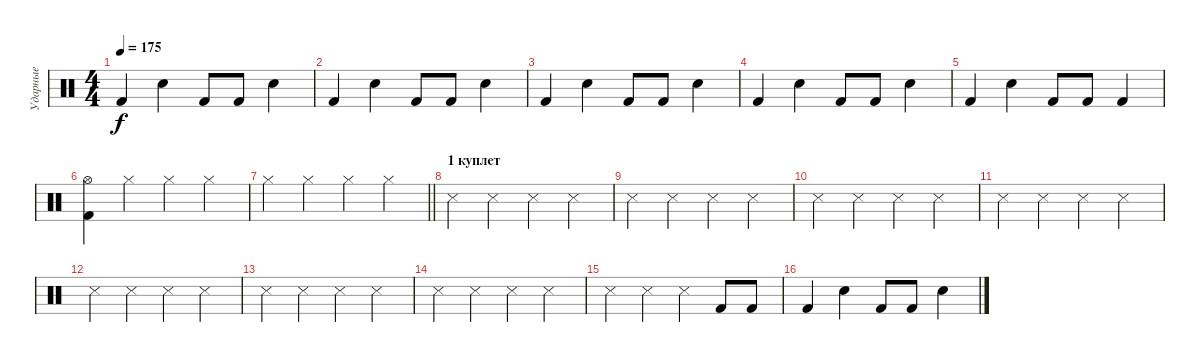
\track ("Ударные" "Ударные") {instrument percussion}
\staff {score}
\articulation defaults
\ts (4 4)
\tempo 175
\clef neutral
\ks c "Kick (hit) 2".4{dy f} "Electric Snare (hit)".4 "Kick (hit) 2".8 "Kick (hit) 2".8 "Electric Snare (hit)".4
|
"Kick (hit) 2".4 "Electric Snare (hit)".4 "Kick (hit) 2".8 "Kick (hit) 2".8 "Electric Snare (hit)".4 |
"Kick (hit) 2".4 "Electric Snare (hit)".4 "Kick (hit) 2".8 "Kick (hit) 2".8 "Electric Snare (hit)".4 |
"Kick (hit) 2".4 "Electric Snare (hit)".4 "Kick (hit) 2".8 "Kick (hit) 2".8 "Electric Snare (hit)".4 |
"Kick (hit) 2".4 "Electric Snare (hit)".4 "Kick (hit) 2".8 "Kick (hit) 2".8 "Kick (hit) 2".4 |
("Hi-Hat (open)" "Kick (hit) 2").4 "Hi-Hat (closed)".4 "Hi-Hat (closed)".4 "Hi-Hat (closed)".4 |
\barLineRight lightlight "Hi-Hat (closed)".4 "Hi-Hat (closed)".4 "Hi-Hat (closed)".4 "Hi-Hat (closed)".4
|
\section ("" "1 куплет")
"Snare (side stick) 3".4 "Snare (side stick) 3".4 "Snare (side stick) 3".4 "Snare (side stick) 3".4 |
"Snare (side stick) 3".4 "Snare (side stick) 3".4 "Snare (side stick) 3".4 "Snare (side stick) 3".4 |
"Snare (side stick) 3".4 "Snare (side stick) 3".4 "Snare (side stick) 3".4 "Snare (side stick) 3".4 |
"Snare (side stick) 3".4 "Snare (side stick) 3".4 "Snare (side stick) 3".4 "Snare (side stick) 3".4 |
"Snare (side stick) 3".4 "Snare (side stick) 3".4 "Snare (side stick) 3".4 "Snare (side stick) 3".4 |
"Snare (side stick) 3".4 "Snare (side stick) 3".4 "Snare (side stick) 3".4 "Snare (side stick) 3".4 |
"Snare (side stick) 3".4 "Snare (side stick) 3".4 "Snare (side stick) 3".4 "Snare (side stick) 3".4 |
"Snare (side stick) 3".4 "Snare (side stick) 3".4 "Snare (side stick) 3".4 "Kick (hit) 2".8 "Kick (hit) 2".8 |
"Kick (hit) 2".4 "Electric Snare (hit)".4 "Kick (hit) 2".8 "Kick (hit) 2".8 "Electric Snare (hit)".4
